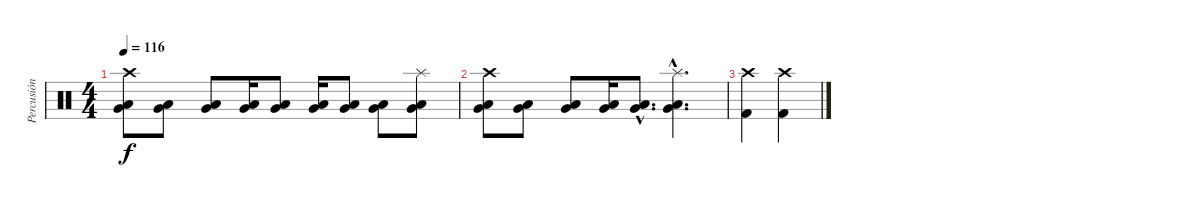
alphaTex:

\track ("Percusión" "Percusión") {instrument percussion}
\staff {score}
\articulation defaults
\ts (4 4)
\tempo 116
\clef neutral
\ks c
("Very Low Tom (hit)" "Low Tom (hit)" "Crash high (hit)").8{dy f} ("Very Low Tom (hit)" "Low Floor Tom (hit)").8 ("Very Low Tom (hit)" "Low Floor Tom (hit)").8 ("Very Low Tom (hit)" "Low Floor Tom (hit)").16 ("Very Low Tom (hit)" "Low Floor Tom (hit)").8 ("Very Low Tom (hit)" "Low Floor Tom (hit)").16 ("Very Low Tom (hit)" "Low Floor Tom (hit)").8 ("Very Low Tom (hit)" "Low Floor Tom (hit)").8 ("Very Low Tom (hit)" "Low Tom (hit)" "Splash (hit)").8 |
("Very Low Tom (hit)" "Low Tom (hit)" "Crash high (hit)").8 ("Very Low Tom (hit)" "Low Floor Tom (hit)").8 ("Very Low Tom (hit)" "Low Floor Tom (hit)").8 ("Very Low Tom (hit)" "Low Floor Tom (hit)").16 ("Very Low Tom (hit)"{hac} "Low Floor Tom (hit)"{hac}).8{d} ("Very Low Tom (hit)"{hac} "Low Floor Tom (hit)"{hac} "Splash (hit)"{hac}).4{d} |
("Crash high (hit)" "Kick (hit) 2").4 ("Crash high (hit)" "Kick (hit) 2").4
